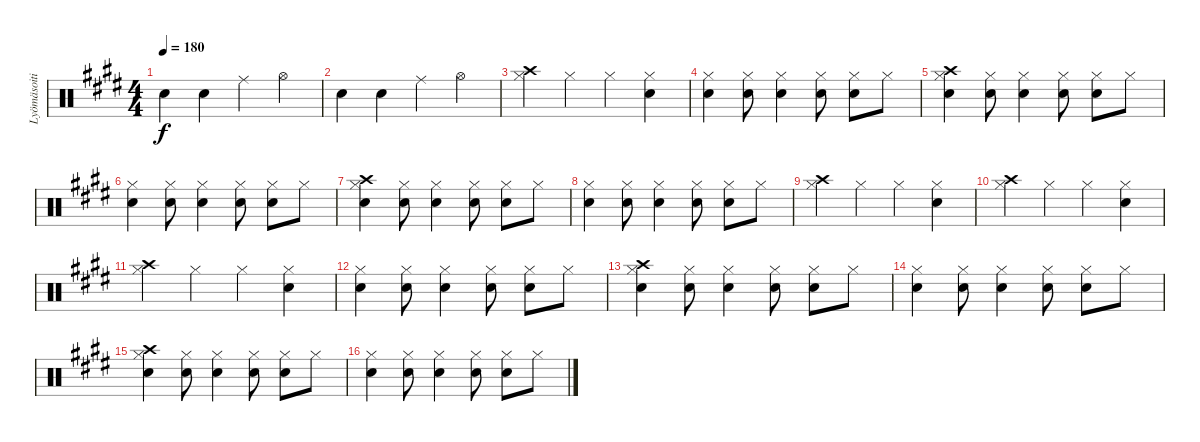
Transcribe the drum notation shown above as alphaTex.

\track ("Lyömäsoitin" "Lyömäsoiti") {instrument percussion}
\staff {score}
\articulation defaults
\ts (4 4)
\tempo 180
\clef neutral
\ks e "Electric Snare (hit)".4{dy f} "Electric Snare (hit)".4 "Ride (middle)".4 "Hi-Hat (open)".4
|
"Electric Snare (hit)".4 "Electric Snare (hit)".4 "Ride (middle)".4 "Hi-Hat (open)".4 |
("Crash high (hit)" "Hi-Hat (closed)").4 "Hi-Hat (closed)".4 "Hi-Hat (closed)".4 ("Hi-Hat (closed)" "Electric Snare (hit)").4 |
("Hi-Hat (closed)" "Electric Snare (hit)").4 ("Hi-Hat (closed)" "Electric Snare (hit)").8 ("Hi-Hat (closed)" "Electric Snare (hit)").4 ("Hi-Hat (closed)" "Electric Snare (hit)").8 ("Hi-Hat (closed)" "Electric Snare (hit)").8 "Hi-Hat (closed)".8 |
("Crash high (hit)" "Hi-Hat (closed)" "Electric Snare (hit)").4 ("Hi-Hat (closed)" "Electric Snare (hit)").8 ("Hi-Hat (closed)" "Electric Snare (hit)").4 ("Hi-Hat (closed)" "Electric Snare (hit)").8 ("Hi-Hat (closed)" "Electric Snare (hit)").8 "Hi-Hat (closed)".8 |
("Hi-Hat (closed)" "Electric Snare (hit)").4 ("Hi-Hat (closed)" "Electric Snare (hit)").8 ("Hi-Hat (closed)" "Electric Snare (hit)").4 ("Hi-Hat (closed)" "Electric Snare (hit)").8 ("Hi-Hat (closed)" "Electric Snare (hit)").8 "Hi-Hat (closed)".8 |
("Crash high (hit)" "Hi-Hat (closed)" "Electric Snare (hit)").4 ("Hi-Hat (closed)" "Electric Snare (hit)").8 ("Hi-Hat (closed)" "Electric Snare (hit)").4 ("Hi-Hat (closed)" "Electric Snare (hit)").8 ("Hi-Hat (closed)" "Electric Snare (hit)").8 "Hi-Hat (closed)".8 |
("Hi-Hat (closed)" "Electric Snare (hit)").4 ("Hi-Hat (closed)" "Electric Snare (hit)").8 ("Hi-Hat (closed)" "Electric Snare (hit)").4 ("Hi-Hat (closed)" "Electric Snare (hit)").8 ("Hi-Hat (closed)" "Electric Snare (hit)").8 "Hi-Hat (closed)".8 |
("Crash high (hit)" "Hi-Hat (closed)").4 "Hi-Hat (closed)".4 "Hi-Hat (closed)".4 ("Hi-Hat (closed)" "Electric Snare (hit)").4 |
("Crash high (hit)" "Hi-Hat (closed)").4 "Hi-Hat (closed)".4 "Hi-Hat (closed)".4 ("Hi-Hat (closed)" "Electric Snare (hit)").4 |
("Crash high (hit)" "Hi-Hat (closed)").4 "Hi-Hat (closed)".4 "Hi-Hat (closed)".4 ("Hi-Hat (closed)" "Electric Snare (hit)").4 |
("Hi-Hat (closed)" "Electric Snare (hit)").4 ("Hi-Hat (closed)" "Electric Snare (hit)").8 ("Hi-Hat (closed)" "Electric Snare (hit)").4 ("Hi-Hat (closed)" "Electric Snare (hit)").8 ("Hi-Hat (closed)" "Electric Snare (hit)").8 "Hi-Hat (closed)".8 |
("Crash high (hit)" "Hi-Hat (closed)" "Electric Snare (hit)").4 ("Hi-Hat (closed)" "Electric Snare (hit)").8 ("Hi-Hat (closed)" "Electric Snare (hit)").4 ("Hi-Hat (closed)" "Electric Snare (hit)").8 ("Hi-Hat (closed)" "Electric Snare (hit)").8 "Hi-Hat (closed)".8 |
("Hi-Hat (closed)" "Electric Snare (hit)").4 ("Hi-Hat (closed)" "Electric Snare (hit)").8 ("Hi-Hat (closed)" "Electric Snare (hit)").4 ("Hi-Hat (closed)" "Electric Snare (hit)").8 ("Hi-Hat (closed)" "Electric Snare (hit)").8 "Hi-Hat (closed)".8 |
("Crash high (hit)" "Hi-Hat (closed)" "Electric Snare (hit)").4 ("Hi-Hat (closed)" "Electric Snare (hit)").8 ("Hi-Hat (closed)" "Electric Snare (hit)").4 ("Hi-Hat (closed)" "Electric Snare (hit)").8 ("Hi-Hat (closed)" "Electric Snare (hit)").8 "Hi-Hat (closed)".8 |
("Hi-Hat (closed)" "Electric Snare (hit)").4 ("Hi-Hat (closed)" "Electric Snare (hit)").8 ("Hi-Hat (closed)" "Electric Snare (hit)").4 ("Hi-Hat (closed)" "Electric Snare (hit)").8 ("Hi-Hat (closed)" "Electric Snare (hit)").8 "Hi-Hat (closed)".8
